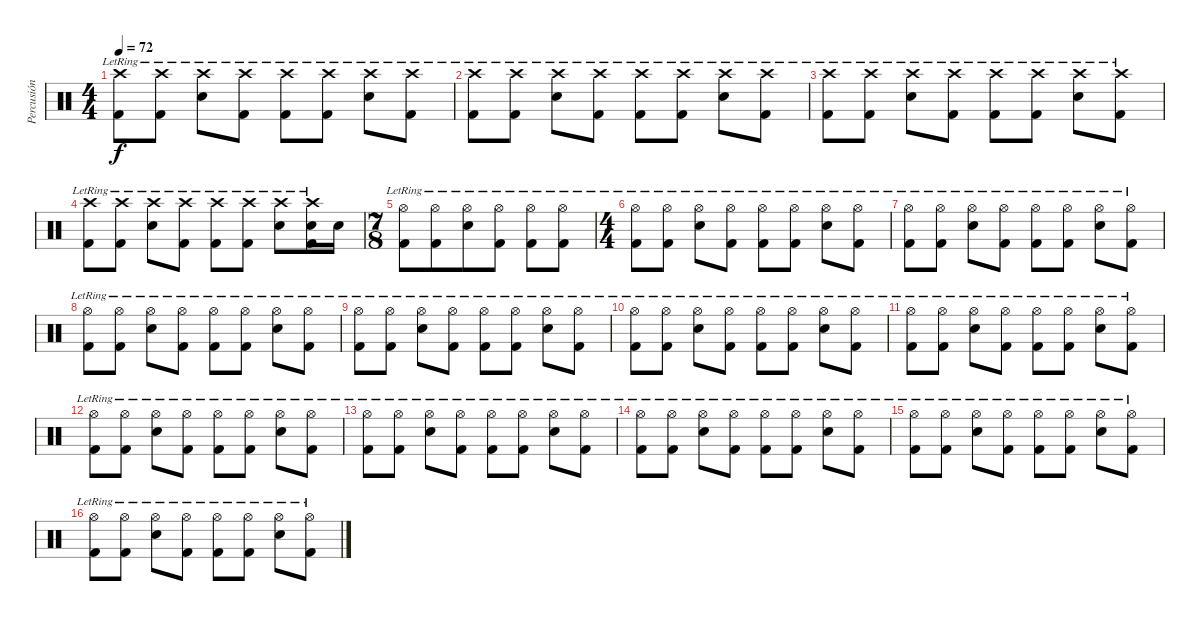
\track ("Percusión" "Percusión") {instrument percussion}
\staff {score}
\articulation defaults
\ts (4 4)
\tempo 72
\clef neutral
\ks c
("Crash high (hit)"{lr} "Kick (hit) 2"{lr}).8{dy f} ("Crash high (hit)"{lr} "Kick (hit) 2"{lr}).8 ("Crash high (hit)"{lr} "Electric Snare (hit)"{lr}).8 ("Crash high (hit)"{lr} "Kick (hit) 2"{lr}).8 ("Crash high (hit)"{lr} "Kick (hit) 2"{lr}).8 ("Crash high (hit)"{lr} "Kick (hit) 2"{lr}).8 ("Crash high (hit)"{lr} "Electric Snare (hit)"{lr}).8 ("Crash high (hit)"{lr} "Kick (hit) 2"{lr}).8 |
("Crash high (hit)"{lr} "Kick (hit) 2"{lr}).8 ("Crash high (hit)"{lr} "Kick (hit) 2"{lr}).8 ("Crash high (hit)"{lr} "Electric Snare (hit)"{lr}).8 ("Crash high (hit)"{lr} "Kick (hit) 2"{lr}).8 ("Crash high (hit)"{lr} "Kick (hit) 2"{lr}).8 ("Crash high (hit)"{lr} "Kick (hit) 2"{lr}).8 ("Crash high (hit)"{lr} "Electric Snare (hit)"{lr}).8 ("Crash high (hit)"{lr} "Kick (hit) 2"{lr}).8 |
("Crash high (hit)"{lr} "Kick (hit) 2"{lr}).8 ("Crash high (hit)"{lr} "Kick (hit) 2"{lr}).8 ("Crash high (hit)"{lr} "Electric Snare (hit)"{lr}).8 ("Crash high (hit)"{lr} "Kick (hit) 2"{lr}).8 ("Crash high (hit)"{lr} "Kick (hit) 2"{lr}).8 ("Crash high (hit)"{lr} "Kick (hit) 2"{lr}).8 ("Crash high (hit)"{lr} "Electric Snare (hit)"{lr}).8 ("Crash high (hit)"{lr} "Kick (hit) 2"{lr}).8 |
("Crash high (hit)"{lr} "Kick (hit) 2"{lr}).8 ("Crash high (hit)"{lr} "Kick (hit) 2"{lr}).8 ("Crash high (hit)"{lr} "Electric Snare (hit)"{lr}).8 ("Crash high (hit)"{lr} "Kick (hit) 2"{lr}).8 ("Crash high (hit)"{lr} "Kick (hit) 2"{lr}).8 ("Crash high (hit)" "Kick (hit) 2"{lr}).8 ("Crash high (hit)"{lr} "Electric Snare (hit)"{lr}).8 ("Crash high (hit)"{lr} "Electric Snare (hit)" "Kick (hit) 2"{lr}).16 "Electric Snare (hit)".16 |
\ts (7 8)
("Hi-Hat (open)"{lr} "Kick (hit) 2"{lr}).8 ("Hi-Hat (open)"{lr} "Kick (hit) 2"{lr}).8 ("Hi-Hat (open)"{lr} "Electric Snare (hit)"{lr}).8 ("Hi-Hat (open)"{lr} "Kick (hit) 2"{lr}).8 ("Hi-Hat (open)"{lr} "Kick (hit) 2"{lr}).8 ("Hi-Hat (open)"{lr} "Kick (hit) 2"{lr}).8 |
\ts (4 4)
("Hi-Hat (open)"{lr} "Kick (hit) 2"{lr}).8 ("Hi-Hat (open)"{lr} "Kick (hit) 2"{lr}).8 ("Hi-Hat (open)"{lr} "Electric Snare (hit)"{lr}).8 ("Hi-Hat (open)"{lr} "Kick (hit) 2"{lr}).8 ("Hi-Hat (open)"{lr} "Kick (hit) 2"{lr}).8 ("Hi-Hat (open)"{lr} "Kick (hit) 2"{lr}).8 ("Hi-Hat (open)"{lr} "Electric Snare (hit)"{lr}).8 ("Hi-Hat (open)"{lr} "Kick (hit) 2"{lr}).8 |
("Hi-Hat (open)"{lr} "Kick (hit) 2"{lr}).8 ("Hi-Hat (open)"{lr} "Kick (hit) 2"{lr}).8 ("Hi-Hat (open)"{lr} "Electric Snare (hit)"{lr}).8 ("Hi-Hat (open)"{lr} "Kick (hit) 2"{lr}).8 ("Hi-Hat (open)"{lr} "Kick (hit) 2"{lr}).8 ("Hi-Hat (open)"{lr} "Kick (hit) 2"{lr}).8 ("Hi-Hat (open)"{lr} "Electric Snare (hit)"{lr}).8 ("Hi-Hat (open)"{lr} "Kick (hit) 2"{lr}).8 |
("Hi-Hat (open)"{lr} "Kick (hit) 2"{lr}).8 ("Hi-Hat (open)"{lr} "Kick (hit) 2"{lr}).8 ("Hi-Hat (open)"{lr} "Electric Snare (hit)"{lr}).8 ("Hi-Hat (open)"{lr} "Kick (hit) 2"{lr}).8 ("Hi-Hat (open)"{lr} "Kick (hit) 2"{lr}).8 ("Hi-Hat (open)"{lr} "Kick (hit) 2"{lr}).8 ("Hi-Hat (open)"{lr} "Electric Snare (hit)"{lr}).8 ("Hi-Hat (open)"{lr} "Kick (hit) 2"{lr}).8 |
("Hi-Hat (open)"{lr} "Kick (hit) 2"{lr}).8 ("Hi-Hat (open)"{lr} "Kick (hit) 2"{lr}).8 ("Hi-Hat (open)"{lr} "Electric Snare (hit)"{lr}).8 ("Hi-Hat (open)"{lr} "Kick (hit) 2"{lr}).8 ("Hi-Hat (open)"{lr} "Kick (hit) 2"{lr}).8 ("Hi-Hat (open)"{lr} "Kick (hit) 2"{lr}).8 ("Hi-Hat (open)"{lr} "Electric Snare (hit)"{lr}).8 ("Hi-Hat (open)"{lr} "Kick (hit) 2"{lr}).8 |
("Hi-Hat (open)"{lr} "Kick (hit) 2"{lr}).8 ("Hi-Hat (open)"{lr} "Kick (hit) 2"{lr}).8 ("Hi-Hat (open)"{lr} "Electric Snare (hit)"{lr}).8 ("Hi-Hat (open)"{lr} "Kick (hit) 2"{lr}).8 ("Hi-Hat (open)"{lr} "Kick (hit) 2"{lr}).8 ("Hi-Hat (open)"{lr} "Kick (hit) 2"{lr}).8 ("Hi-Hat (open)"{lr} "Electric Snare (hit)"{lr}).8 ("Hi-Hat (open)"{lr} "Kick (hit) 2"{lr}).8 |
("Hi-Hat (open)"{lr} "Kick (hit) 2"{lr}).8 ("Hi-Hat (open)"{lr} "Kick (hit) 2"{lr}).8 ("Hi-Hat (open)"{lr} "Electric Snare (hit)"{lr}).8 ("Hi-Hat (open)"{lr} "Kick (hit) 2"{lr}).8 ("Hi-Hat (open)"{lr} "Kick (hit) 2"{lr}).8 ("Hi-Hat (open)"{lr} "Kick (hit) 2"{lr}).8 ("Hi-Hat (open)"{lr} "Electric Snare (hit)"{lr}).8 ("Hi-Hat (open)"{lr} "Kick (hit) 2"{lr}).8 |
("Hi-Hat (open)"{lr} "Kick (hit) 2"{lr}).8 ("Hi-Hat (open)"{lr} "Kick (hit) 2"{lr}).8 ("Hi-Hat (open)"{lr} "Electric Snare (hit)"{lr}).8 ("Hi-Hat (open)"{lr} "Kick (hit) 2"{lr}).8 ("Hi-Hat (open)"{lr} "Kick (hit) 2"{lr}).8 ("Hi-Hat (open)"{lr} "Kick (hit) 2"{lr}).8 ("Hi-Hat (open)"{lr} "Electric Snare (hit)"{lr}).8 ("Hi-Hat (open)"{lr} "Kick (hit) 2"{lr}).8 |
("Hi-Hat (open)"{lr} "Kick (hit) 2"{lr}).8 ("Hi-Hat (open)"{lr} "Kick (hit) 2"{lr}).8 ("Hi-Hat (open)"{lr} "Electric Snare (hit)"{lr}).8 ("Hi-Hat (open)"{lr} "Kick (hit) 2"{lr}).8 ("Hi-Hat (open)"{lr} "Kick (hit) 2"{lr}).8 ("Hi-Hat (open)"{lr} "Kick (hit) 2"{lr}).8 ("Hi-Hat (open)"{lr} "Electric Snare (hit)"{lr}).8 ("Hi-Hat (open)"{lr} "Kick (hit) 2"{lr}).8 |
("Hi-Hat (open)"{lr} "Kick (hit) 2"{lr}).8 ("Hi-Hat (open)"{lr} "Kick (hit) 2"{lr}).8 ("Hi-Hat (open)"{lr} "Electric Snare (hit)"{lr}).8 ("Hi-Hat (open)"{lr} "Kick (hit) 2"{lr}).8 ("Hi-Hat (open)"{lr} "Kick (hit) 2"{lr}).8 ("Hi-Hat (open)"{lr} "Kick (hit) 2"{lr}).8 ("Hi-Hat (open)"{lr} "Electric Snare (hit)"{lr}).8 ("Hi-Hat (open)"{lr} "Kick (hit) 2"{lr}).8 |
("Hi-Hat (open)"{lr} "Kick (hit) 2"{lr}).8 ("Hi-Hat (open)"{lr} "Kick (hit) 2"{lr}).8 ("Hi-Hat (open)"{lr} "Electric Snare (hit)"{lr}).8 ("Hi-Hat (open)"{lr} "Kick (hit) 2"{lr}).8 ("Hi-Hat (open)"{lr} "Kick (hit) 2"{lr}).8 ("Hi-Hat (open)"{lr} "Kick (hit) 2"{lr}).8 ("Hi-Hat (open)"{lr} "Electric Snare (hit)"{lr}).8 ("Hi-Hat (open)"{lr} "Kick (hit) 2"{lr}).8 |
("Hi-Hat (open)"{lr} "Kick (hit) 2"{lr}).8 ("Hi-Hat (open)"{lr} "Kick (hit) 2"{lr}).8 ("Hi-Hat (open)"{lr} "Electric Snare (hit)"{lr}).8 ("Hi-Hat (open)"{lr} "Kick (hit) 2"{lr}).8 ("Hi-Hat (open)"{lr} "Kick (hit) 2"{lr}).8 ("Hi-Hat (open)"{lr} "Kick (hit) 2"{lr}).8 ("Hi-Hat (open)"{lr} "Electric Snare (hit)"{lr}).8 ("Hi-Hat (open)"{lr} "Kick (hit) 2"{lr}).8
